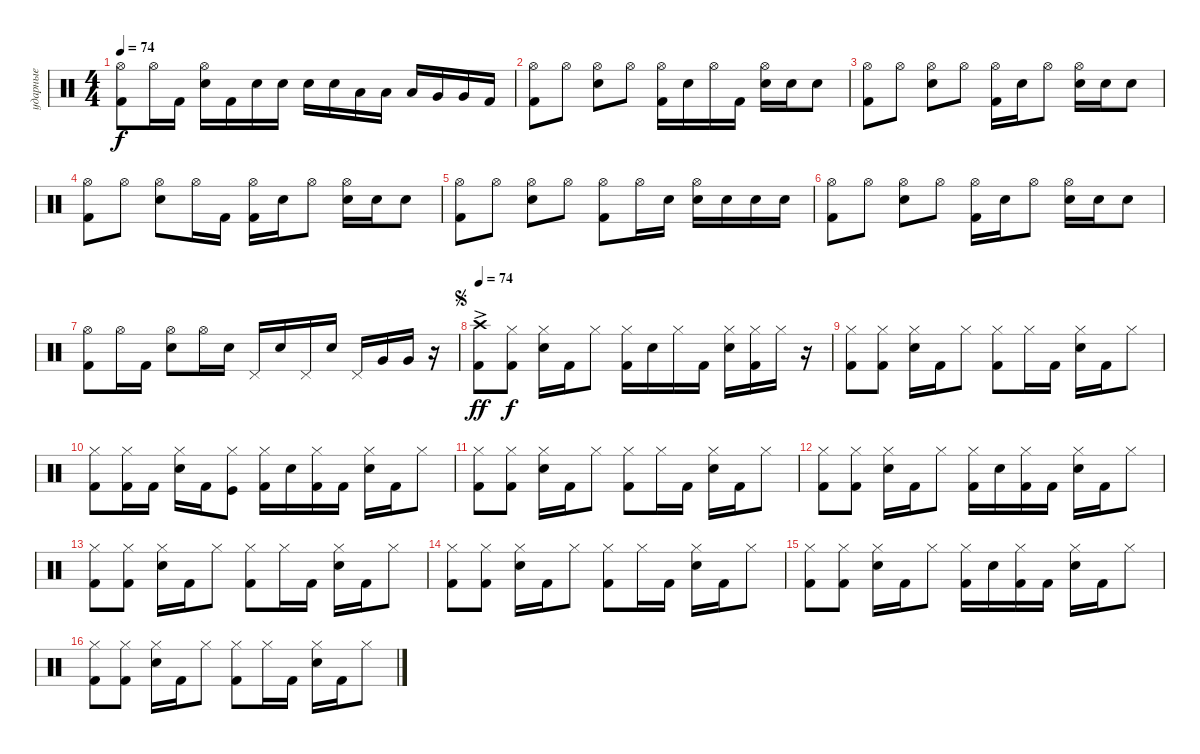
\track ("ударные" "ударные") {instrument percussion}
\staff {score}
\articulation defaults
\ts (4 4)
\tempo 74
\clef neutral
\ks aminor
("Kick (hit) 2" "Hi-Hat (open)").8{dy f} "Hi-Hat (open)".16 "Kick (hit) 2".16 ("Snare (hit) 2" "Hi-Hat (open)").16 "Kick (hit) 2".16 "Snare (hit) 2".16 "Snare (hit) 2".16 "Snare (hit) 2".16 "Snare (hit) 2".16 "Low Tom (hit)".16 "Low Tom (hit)".16 "Low Tom (hit)".16 "Very Low Tom (hit)".16 "Very Low Tom (hit)".16 "Kick (hit) 2".16 |
("Kick (hit) 2" "Hi-Hat (open)").8 "Hi-Hat (open)".8 ("Snare (hit) 2" "Hi-Hat (open)").8 "Hi-Hat (open)".8 ("Kick (hit) 2" "Hi-Hat (open)").16 "Snare (hit) 2".16 "Hi-Hat (open)".16 "Kick (hit) 2".16 ("Snare (hit) 2" "Hi-Hat (open)").16 "Snare (hit) 2".16 "Snare (hit) 2".8 |
("Kick (hit) 2" "Hi-Hat (open)").8 "Hi-Hat (open)".8 ("Snare (hit) 2" "Hi-Hat (open)").8 "Hi-Hat (open)".8 ("Kick (hit) 2" "Hi-Hat (open)").16 "Snare (hit) 2".16 "Hi-Hat (open)".8 ("Snare (hit) 2" "Hi-Hat (open)").16 "Snare (hit) 2".16 "Snare (hit) 2".8 |
("Kick (hit) 2" "Hi-Hat (open)").8 "Hi-Hat (open)".8 ("Snare (hit) 2" "Hi-Hat (open)").8 "Hi-Hat (open)".16 "Kick (hit) 2".16 ("Kick (hit) 2" "Hi-Hat (open)").16 "Snare (hit) 2".16 "Hi-Hat (open)".8 ("Snare (hit) 2" "Hi-Hat (open)").16 "Snare (hit) 2".16 "Snare (hit) 2".8 |
("Kick (hit) 2" "Hi-Hat (open)").8 "Hi-Hat (open)".8 ("Snare (hit) 2" "Hi-Hat (open)").8 "Hi-Hat (open)".8 ("Kick (hit) 2" "Hi-Hat (open)").8 "Hi-Hat (open)".16 "Snare (hit) 2".16 ("Snare (hit) 2" "Hi-Hat (open)").16 "Snare (hit) 2".16 "Snare (hit) 2".16 "Snare (hit) 2".16 |
("Kick (hit) 2" "Hi-Hat (open)").8 "Hi-Hat (open)".8 ("Snare (hit) 2" "Hi-Hat (open)").8 "Hi-Hat (open)".8 ("Kick (hit) 2" "Hi-Hat (open)").16 "Snare (hit) 2".16 "Hi-Hat (open)".8 ("Snare (hit) 2" "Hi-Hat (open)").16 "Snare (hit) 2".16 "Snare (hit) 2".8 |
("Kick (hit) 2" "Hi-Hat (open)").8 "Hi-Hat (open)".16 "Kick (hit) 2".16 ("Snare (hit) 2" "Hi-Hat (open)").8 "Hi-Hat (open)".16 "Snare (hit) 2".16 "Pedal Hi-Hat (hit)".16 "Snare (hit) 2".16 "Pedal Hi-Hat (hit)".16 "Snare (hit) 2".16 "Pedal Hi-Hat (hit)".16 "Very Low Tom (hit)".16 "Very Low Tom (hit)".16 r.16 |
\jump segno
\tempo 74
("Kick (hit) 2" "Crash high (hit)"{ac}).8{dy ff} ("Kick (hit) 2" "Hi-Hat (closed)").8{dy f} ("Snare (hit) 2" "Hi-Hat (closed)").16 "Kick (hit) 2".16 "Hi-Hat (closed)".8 ("Kick (hit) 2" "Hi-Hat (closed)").16 "Snare (hit) 2".16 "Hi-Hat (closed)".16 "Kick (hit) 2".16 ("Snare (hit) 2" "Hi-Hat (closed)").16 ("Kick (hit) 2" "Hi-Hat (closed)").16 "Hi-Hat (closed)".16 r.16 |
("Kick (hit) 2" "Hi-Hat (closed)").8 ("Kick (hit) 2" "Hi-Hat (closed)").8 ("Snare (hit) 2" "Hi-Hat (closed)").16 "Kick (hit) 2".16 "Hi-Hat (closed)".8 ("Kick (hit) 2" "Hi-Hat (closed)").8 "Hi-Hat (closed)".16 "Kick (hit) 2".16 ("Snare (hit) 2" "Hi-Hat (closed)").16 "Kick (hit) 2".16 "Hi-Hat (closed)".8 |
("Kick (hit) 2" "Hi-Hat (closed)").8 ("Hi-Hat (closed)" "Kick (hit) 2").16 "Kick (hit) 2".16 ("Snare (hit) 2" "Hi-Hat (closed)").16 "Kick (hit) 2".16 ("Hi-Hat (closed)" "Kick (hit)").8 ("Kick (hit) 2" "Hi-Hat (closed)").16 "Snare (hit) 2".16 ("Kick (hit) 2" "Hi-Hat (closed)").16 "Kick (hit) 2".16 ("Snare (hit) 2" "Hi-Hat (closed)").16 "Kick (hit) 2".16 "Hi-Hat (closed)".8 |
("Kick (hit) 2" "Hi-Hat (closed)").8 ("Kick (hit) 2" "Hi-Hat (closed)").8 ("Snare (hit) 2" "Hi-Hat (closed)").16 "Kick (hit) 2".16 "Hi-Hat (closed)".8 ("Kick (hit) 2" "Hi-Hat (closed)").8 "Hi-Hat (closed)".16 "Kick (hit) 2".16 ("Snare (hit) 2" "Hi-Hat (closed)").16 "Kick (hit) 2".16 "Hi-Hat (closed)".8 |
("Kick (hit) 2" "Hi-Hat (closed)").8 ("Hi-Hat (closed)" "Kick (hit) 2").8 ("Snare (hit) 2" "Hi-Hat (closed)").16 "Kick (hit) 2".16 "Hi-Hat (closed)".8 ("Kick (hit) 2" "Hi-Hat (closed)").16 "Snare (hit) 2".16 ("Kick (hit) 2" "Hi-Hat (closed)").16 "Kick (hit) 2".16 ("Snare (hit) 2" "Hi-Hat (closed)").16 "Kick (hit) 2".16 "Hi-Hat (closed)".8 |
("Kick (hit) 2" "Hi-Hat (closed)").8 ("Kick (hit) 2" "Hi-Hat (closed)").8 ("Snare (hit) 2" "Hi-Hat (closed)").16 "Kick (hit) 2".16 "Hi-Hat (closed)".8 ("Kick (hit) 2" "Hi-Hat (closed)").8 "Hi-Hat (closed)".16 "Kick (hit) 2".16 ("Snare (hit) 2" "Hi-Hat (closed)").16 "Kick (hit) 2".16 "Hi-Hat (closed)".8 |
("Kick (hit) 2" "Hi-Hat (closed)").8 ("Kick (hit) 2" "Hi-Hat (closed)").8 ("Snare (hit) 2" "Hi-Hat (closed)").16 "Kick (hit) 2".16 "Hi-Hat (closed)".8 ("Kick (hit) 2" "Hi-Hat (closed)").8 "Hi-Hat (closed)".16 "Kick (hit) 2".16 ("Snare (hit) 2" "Hi-Hat (closed)").16 "Kick (hit) 2".16 "Hi-Hat (closed)".8 |
("Kick (hit) 2" "Hi-Hat (closed)").8 ("Hi-Hat (closed)" "Kick (hit) 2").8 ("Snare (hit) 2" "Hi-Hat (closed)").16 "Kick (hit) 2".16 "Hi-Hat (closed)".8 ("Kick (hit) 2" "Hi-Hat (closed)").16 "Snare (hit) 2".16 ("Kick (hit) 2" "Hi-Hat (closed)").16 "Kick (hit) 2".16 ("Snare (hit) 2" "Hi-Hat (closed)").16 "Kick (hit) 2".16 "Hi-Hat (closed)".8 |
("Kick (hit) 2" "Hi-Hat (closed)").8 ("Kick (hit) 2" "Hi-Hat (closed)").8 ("Snare (hit) 2" "Hi-Hat (closed)").16 "Kick (hit) 2".16 "Hi-Hat (closed)".8 ("Kick (hit) 2" "Hi-Hat (closed)").8 "Hi-Hat (closed)".16 "Kick (hit) 2".16 ("Snare (hit) 2" "Hi-Hat (closed)").16 "Kick (hit) 2".16 "Hi-Hat (closed)".8
